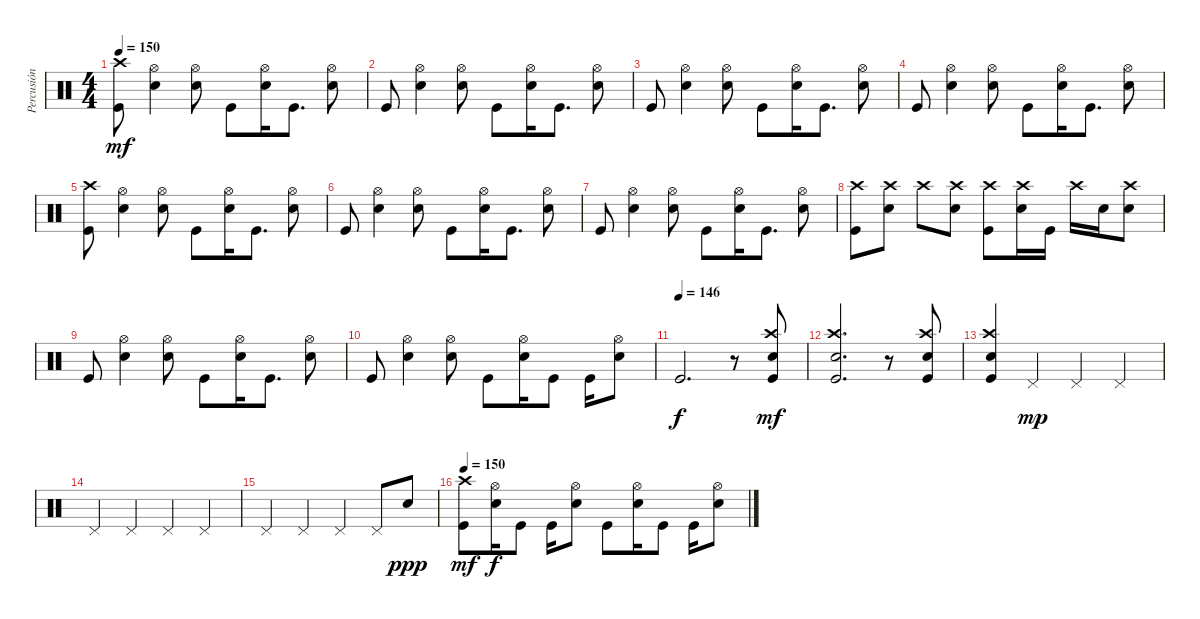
\track ("Percusión" "Percusión") {instrument percussion}
\staff {score}
\articulation defaults
\ts (4 4)
\tempo 150
\clef neutral
\ks c
("Kick (hit)" "Crash high (hit)").8{dy mf} ("Snare (hit) 2" "Hi-Hat (open)").4 ("Snare (hit) 2" "Hi-Hat (open)").8 "Kick (hit)".8 ("Snare (hit) 2" "Hi-Hat (open)").16 "Kick (hit)".8{d} ("Snare (hit) 2" "Hi-Hat (open)").8 |
"Kick (hit)".8 ("Snare (hit) 2" "Hi-Hat (open)").4 ("Snare (hit) 2" "Hi-Hat (open)").8 "Kick (hit)".8 ("Snare (hit) 2" "Hi-Hat (open)").16 "Kick (hit)".8{d} ("Snare (hit) 2" "Hi-Hat (open)").8 |
"Kick (hit)".8 ("Snare (hit) 2" "Hi-Hat (open)").4 ("Snare (hit) 2" "Hi-Hat (open)").8 "Kick (hit)".8 ("Snare (hit) 2" "Hi-Hat (open)").16 "Kick (hit)".8{d} ("Snare (hit) 2" "Hi-Hat (open)").8 |
"Kick (hit)".8 ("Snare (hit) 2" "Hi-Hat (open)").4 ("Snare (hit) 2" "Hi-Hat (open)").8 "Kick (hit)".8 ("Snare (hit) 2" "Hi-Hat (open)").16 "Kick (hit)".8{d} ("Snare (hit) 2" "Hi-Hat (open)").8 |
("Kick (hit)" "Crash high (hit)").8 ("Snare (hit) 2" "Hi-Hat (open)").4 ("Snare (hit) 2" "Hi-Hat (open)").8 "Kick (hit)".8 ("Snare (hit) 2" "Hi-Hat (open)").16 "Kick (hit)".8{d} ("Snare (hit) 2" "Hi-Hat (open)").8 |
"Kick (hit)".8 ("Snare (hit) 2" "Hi-Hat (open)").4 ("Snare (hit) 2" "Hi-Hat (open)").8 "Kick (hit)".8 ("Snare (hit) 2" "Hi-Hat (open)").16 "Kick (hit)".8{d} ("Snare (hit) 2" "Hi-Hat (open)").8 |
"Kick (hit)".8 ("Snare (hit) 2" "Hi-Hat (open)").4 ("Snare (hit) 2" "Hi-Hat (open)").8 "Kick (hit)".8 ("Snare (hit) 2" "Hi-Hat (open)").16 "Kick (hit)".8{d} ("Snare (hit) 2" "Hi-Hat (open)").8 |
("Kick (hit)" "Crash high (hit)").8 ("Snare (hit) 2" "Crash high (hit)").8 "Crash high (hit)".8 ("Snare (hit) 2" "Crash high (hit)").8 ("Kick (hit)" "Crash high (hit)").8 ("Snare (hit) 2" "Crash high (hit)").16 "Kick (hit)".16 "Crash high (hit)".16 "Snare (hit) 2".16 ("Snare (hit) 2" "Crash high (hit)").8 |
"Kick (hit)".8 ("Snare (hit) 2" "Hi-Hat (open)").4 ("Snare (hit) 2" "Hi-Hat (open)").8 "Kick (hit)".8 ("Snare (hit) 2" "Hi-Hat (open)").16 "Kick (hit)".8{d} ("Snare (hit) 2" "Hi-Hat (open)").8 |
"Kick (hit)".8 ("Snare (hit) 2" "Hi-Hat (open)").4 ("Snare (hit) 2" "Hi-Hat (open)").8 "Kick (hit)".8 ("Snare (hit) 2" "Hi-Hat (open)").16 "Kick (hit)".8 "Kick (hit)".16 ("Snare (hit) 2" "Hi-Hat (open)").8 |
\tempo (146)
"Kick (hit)".2{d dy f} r.8 ("Kick (hit)" "Snare (hit) 2" "Crash high (hit)").8{dy mf} |
("Kick (hit)" "Snare (hit) 2" "Crash high (hit)").2{d} r.8 ("Kick (hit)" "Snare (hit) 2" "Crash high (hit)").8 |
("Kick (hit)" "Snare (hit) 2" "Crash high (hit)").4 "Pedal Hi-Hat (hit)".4{dy mp} "Pedal Hi-Hat (hit)".4 "Pedal Hi-Hat (hit)".4 |
"Pedal Hi-Hat (hit)".4 "Pedal Hi-Hat (hit)".4 "Pedal Hi-Hat (hit)".4 "Pedal Hi-Hat (hit)".4 |
"Pedal Hi-Hat (hit)".4 "Pedal Hi-Hat (hit)".4 "Pedal Hi-Hat (hit)".4 "Pedal Hi-Hat (hit)".8 "Snare (hit) 2".8{dy ppp} |
\tempo 150
("Kick (hit)" "Crash high (hit)").8{dy mf} ("Snare (hit) 2" "Hi-Hat (open)").16{dy f} "Kick (hit)".8 "Kick (hit)".16 ("Snare (hit) 2" "Hi-Hat (open)").8 "Kick (hit)".8 ("Snare (hit) 2" "Hi-Hat (open)").16 "Kick (hit)".8 "Kick (hit)".16 ("Snare (hit) 2" "Hi-Hat (open)").8
